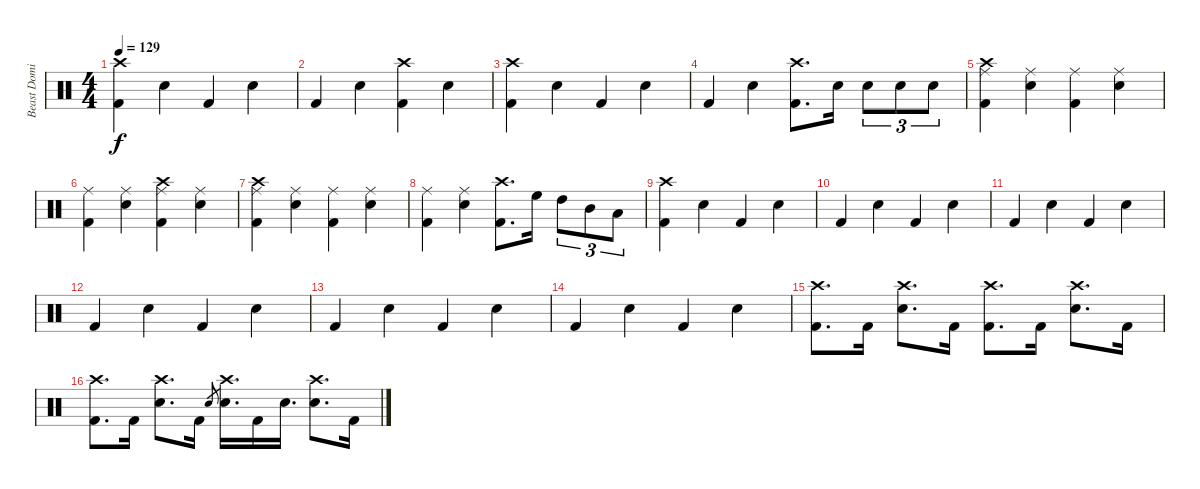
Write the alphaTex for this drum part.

\track ("Beast Dominator" "Beast Domi") {instrument percussion}
\staff
\articulation defaults
\ts (4 4)
\tempo 129
\clef neutral
\ks c
("Crash high (hit)" "Kick (hit) 2").4{dy f} "Snare (hit) 2".4 "Kick (hit) 2".4 "Snare (hit) 2".4 |
"Kick (hit) 2".4 "Snare (hit) 2".4 ("Crash high (hit)" "Kick (hit) 2").4 "Electric Snare (hit)".4 |
("Crash high (hit)" "Kick (hit) 2").4 "Snare (hit) 2".4 "Kick (hit) 2".4 "Snare (hit) 2".4 |
"Kick (hit) 2".4 "Snare (hit) 2".4 ("Crash high (hit)" "Kick (hit) 2").8{d} "Electric Snare (hit)".16 "Electric Snare (hit)".8{tu (3 2)} "Electric Snare (hit)".8{tu (3 2)} "Electric Snare (hit)".8{tu (3 2)} |
("Crash high (hit)" "Ride (middle)" "Kick (hit) 2").4 ("Ride (middle)" "Snare (hit) 2").4 ("Ride (middle)" "Kick (hit) 2").4 ("Ride (middle)" "Snare (hit) 2").4 |
("Ride (middle)" "Kick (hit) 2").4 ("Ride (middle)" "Snare (hit) 2").4 ("Crash high (hit)" "Ride (middle)" "Kick (hit) 2").4 ("Ride (middle)" "Electric Snare (hit)").4 |
("Crash high (hit)" "Ride (middle)" "Kick (hit) 2").4 ("Ride (middle)" "Snare (hit) 2").4 ("Ride (middle)" "Kick (hit) 2").4 ("Ride (middle)" "Snare (hit) 2").4 |
("Ride (middle)" "Kick (hit) 2").4 ("Ride (middle)" "Snare (hit) 2").4 ("Crash high (hit)" "Kick (hit) 2").8{d} "High Floor Tom (hit)".16 "High Tom (hit)".8{tu (3 2)} "Mid Tom (hit)".8{tu (3 2)} "Low Tom (hit)".8{tu (3 2)} |
("Crash high (hit)" "Kick (hit) 2").4 "Snare (hit) 2".4 "Kick (hit) 2".4 "Snare (hit) 2".4 |
"Kick (hit) 2".4 "Snare (hit) 2".4 "Kick (hit) 2".4 "Electric Snare (hit)".4 |
"Kick (hit) 2".4 "Snare (hit) 2".4 "Kick (hit) 2".4 "Snare (hit) 2".4 |
"Kick (hit) 2".4 "Snare (hit) 2".4 "Kick (hit) 2".4 "Electric Snare (hit)".4 |
"Kick (hit) 2".4 "Snare (hit) 2".4 "Kick (hit) 2".4 "Snare (hit) 2".4 |
"Kick (hit) 2".4 "Snare (hit) 2".4 "Kick (hit) 2".4 "Electric Snare (hit)".4 |
("Crash high (hit)" "Kick (hit) 2").8{d} "Kick (hit) 2".16 ("Crash high (hit)" "Snare (hit) 2").8{d} "Kick (hit) 2".16 ("Crash high (hit)" "Kick (hit) 2").8{d} "Kick (hit) 2".16 ("Crash high (hit)" "Snare (hit) 2").8{d} "Kick (hit) 2".16 |
("Crash high (hit)" "Kick (hit) 2").8{d} "Kick (hit) 2".16 ("Crash high (hit)" "Snare (hit) 2").8{d} "Kick (hit) 2".16 "Snare (hit) 2".8{gr} ("Crash high (hit)" "Snare (hit) 2").16{d} "Kick (hit) 2".16 "Snare (hit) 2".16{d} ("Crash high (hit)" "Snare (hit) 2").8{d} "Kick (hit) 2".16
